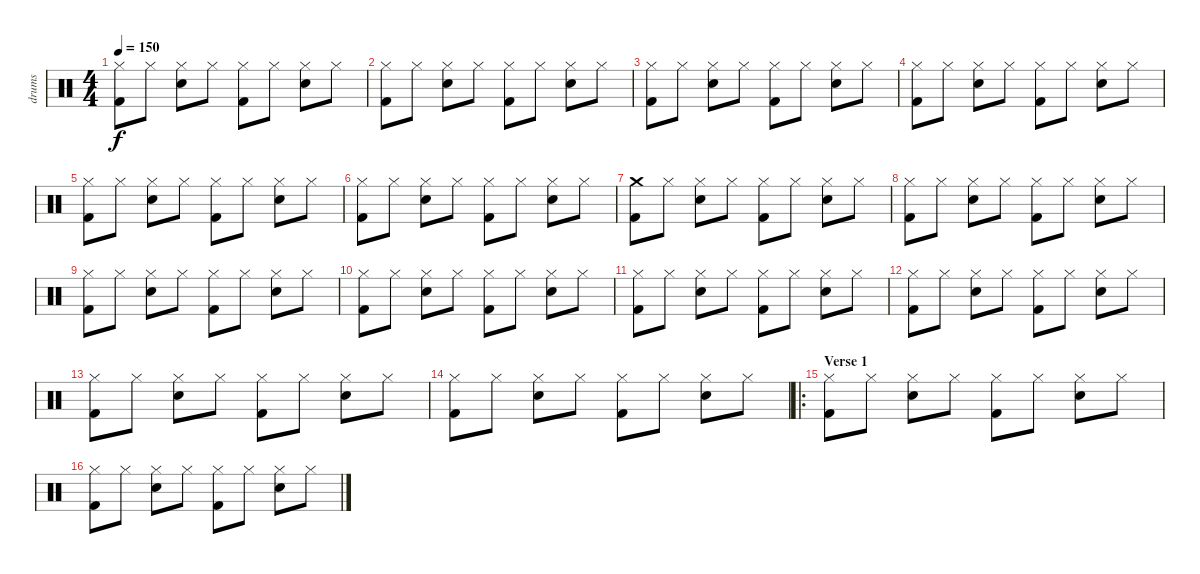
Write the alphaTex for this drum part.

\track ("drums" "drums") {instrument percussion}
\staff {score}
\articulation defaults
\ts (4 4)
\tempo 150
\clef neutral
\ks c
("Hi-Hat (closed)" "Kick (hit) 2").8{dy f} "Hi-Hat (closed)".8 ("Hi-Hat (closed)" "Electric Snare (hit)").8 "Hi-Hat (closed)".8 ("Hi-Hat (closed)" "Kick (hit) 2").8 "Hi-Hat (closed)".8 ("Hi-Hat (closed)" "Electric Snare (hit)").8 "Hi-Hat (closed)".8 |
("Hi-Hat (closed)" "Kick (hit) 2").8 "Hi-Hat (closed)".8 ("Hi-Hat (closed)" "Electric Snare (hit)").8 "Hi-Hat (closed)".8 ("Hi-Hat (closed)" "Kick (hit) 2").8 "Hi-Hat (closed)".8 ("Hi-Hat (closed)" "Electric Snare (hit)").8 "Hi-Hat (closed)".8 |
("Hi-Hat (closed)" "Kick (hit) 2").8 "Hi-Hat (closed)".8 ("Hi-Hat (closed)" "Electric Snare (hit)").8 "Hi-Hat (closed)".8 ("Hi-Hat (closed)" "Kick (hit) 2").8 "Hi-Hat (closed)".8 ("Hi-Hat (closed)" "Electric Snare (hit)").8 "Hi-Hat (closed)".8 |
("Hi-Hat (closed)" "Kick (hit) 2").8 "Hi-Hat (closed)".8 ("Hi-Hat (closed)" "Electric Snare (hit)").8 "Hi-Hat (closed)".8 ("Hi-Hat (closed)" "Kick (hit) 2").8 "Hi-Hat (closed)".8 ("Hi-Hat (closed)" "Electric Snare (hit)").8 "Hi-Hat (closed)".8 |
("Hi-Hat (closed)" "Kick (hit) 2").8 "Hi-Hat (closed)".8 ("Hi-Hat (closed)" "Electric Snare (hit)").8 "Hi-Hat (closed)".8 ("Hi-Hat (closed)" "Kick (hit) 2").8 "Hi-Hat (closed)".8 ("Hi-Hat (closed)" "Electric Snare (hit)").8 "Hi-Hat (closed)".8 |
("Hi-Hat (closed)" "Kick (hit) 2").8 "Hi-Hat (closed)".8 ("Hi-Hat (closed)" "Electric Snare (hit)").8 "Hi-Hat (closed)".8 ("Hi-Hat (closed)" "Kick (hit) 2").8 "Hi-Hat (closed)".8 ("Hi-Hat (closed)" "Electric Snare (hit)").8 "Hi-Hat (closed)".8 |
("Crash medium (hit)" "Kick (hit) 2").8 "Hi-Hat (closed)".8 ("Hi-Hat (closed)" "Electric Snare (hit)").8 "Hi-Hat (closed)".8 ("Hi-Hat (closed)" "Kick (hit) 2").8 "Hi-Hat (closed)".8 ("Hi-Hat (closed)" "Electric Snare (hit)").8 "Hi-Hat (closed)".8 |
("Hi-Hat (closed)" "Kick (hit) 2").8 "Hi-Hat (closed)".8 ("Hi-Hat (closed)" "Electric Snare (hit)").8 "Hi-Hat (closed)".8 ("Hi-Hat (closed)" "Kick (hit) 2").8 "Hi-Hat (closed)".8 ("Hi-Hat (closed)" "Electric Snare (hit)").8 "Hi-Hat (closed)".8 |
("Hi-Hat (closed)" "Kick (hit) 2").8 "Hi-Hat (closed)".8 ("Hi-Hat (closed)" "Electric Snare (hit)").8 "Hi-Hat (closed)".8 ("Hi-Hat (closed)" "Kick (hit) 2").8 "Hi-Hat (closed)".8 ("Hi-Hat (closed)" "Electric Snare (hit)").8 "Hi-Hat (closed)".8 |
("Hi-Hat (closed)" "Kick (hit) 2").8 "Hi-Hat (closed)".8 ("Hi-Hat (closed)" "Electric Snare (hit)").8 "Hi-Hat (closed)".8 ("Hi-Hat (closed)" "Kick (hit) 2").8 "Hi-Hat (closed)".8 ("Hi-Hat (closed)" "Electric Snare (hit)").8 "Hi-Hat (closed)".8 |
("Hi-Hat (closed)" "Kick (hit) 2").8 "Hi-Hat (closed)".8 ("Hi-Hat (closed)" "Electric Snare (hit)").8 "Hi-Hat (closed)".8 ("Hi-Hat (closed)" "Kick (hit) 2").8 "Hi-Hat (closed)".8 ("Hi-Hat (closed)" "Electric Snare (hit)").8 "Hi-Hat (closed)".8 |
("Hi-Hat (closed)" "Kick (hit) 2").8 "Hi-Hat (closed)".8 ("Hi-Hat (closed)" "Electric Snare (hit)").8 "Hi-Hat (closed)".8 ("Hi-Hat (closed)" "Kick (hit) 2").8 "Hi-Hat (closed)".8 ("Hi-Hat (closed)" "Electric Snare (hit)").8 "Hi-Hat (closed)".8 |
("Hi-Hat (closed)" "Kick (hit) 2").8 "Hi-Hat (closed)".8 ("Hi-Hat (closed)" "Electric Snare (hit)").8 "Hi-Hat (closed)".8 ("Hi-Hat (closed)" "Kick (hit) 2").8 "Hi-Hat (closed)".8 ("Hi-Hat (closed)" "Electric Snare (hit)").8 "Hi-Hat (closed)".8 |
("Hi-Hat (closed)" "Kick (hit) 2").8 "Hi-Hat (closed)".8 ("Hi-Hat (closed)" "Electric Snare (hit)").8 "Hi-Hat (closed)".8 ("Hi-Hat (closed)" "Kick (hit) 2").8 "Hi-Hat (closed)".8 ("Hi-Hat (closed)" "Electric Snare (hit)").8 "Hi-Hat (closed)".8 |
\ro
\section ("" "Verse 1")
("Hi-Hat (closed)" "Kick (hit) 2").8 "Hi-Hat (closed)".8 ("Hi-Hat (closed)" "Electric Snare (hit)").8 "Hi-Hat (closed)".8 ("Hi-Hat (closed)" "Kick (hit) 2").8 "Hi-Hat (closed)".8 ("Hi-Hat (closed)" "Electric Snare (hit)").8 "Hi-Hat (closed)".8 |
("Hi-Hat (closed)" "Kick (hit) 2").8 "Hi-Hat (closed)".8 ("Hi-Hat (closed)" "Electric Snare (hit)").8 "Hi-Hat (closed)".8 ("Hi-Hat (closed)" "Kick (hit) 2").8 "Hi-Hat (closed)".8 ("Hi-Hat (closed)" "Electric Snare (hit)").8 "Hi-Hat (closed)".8
